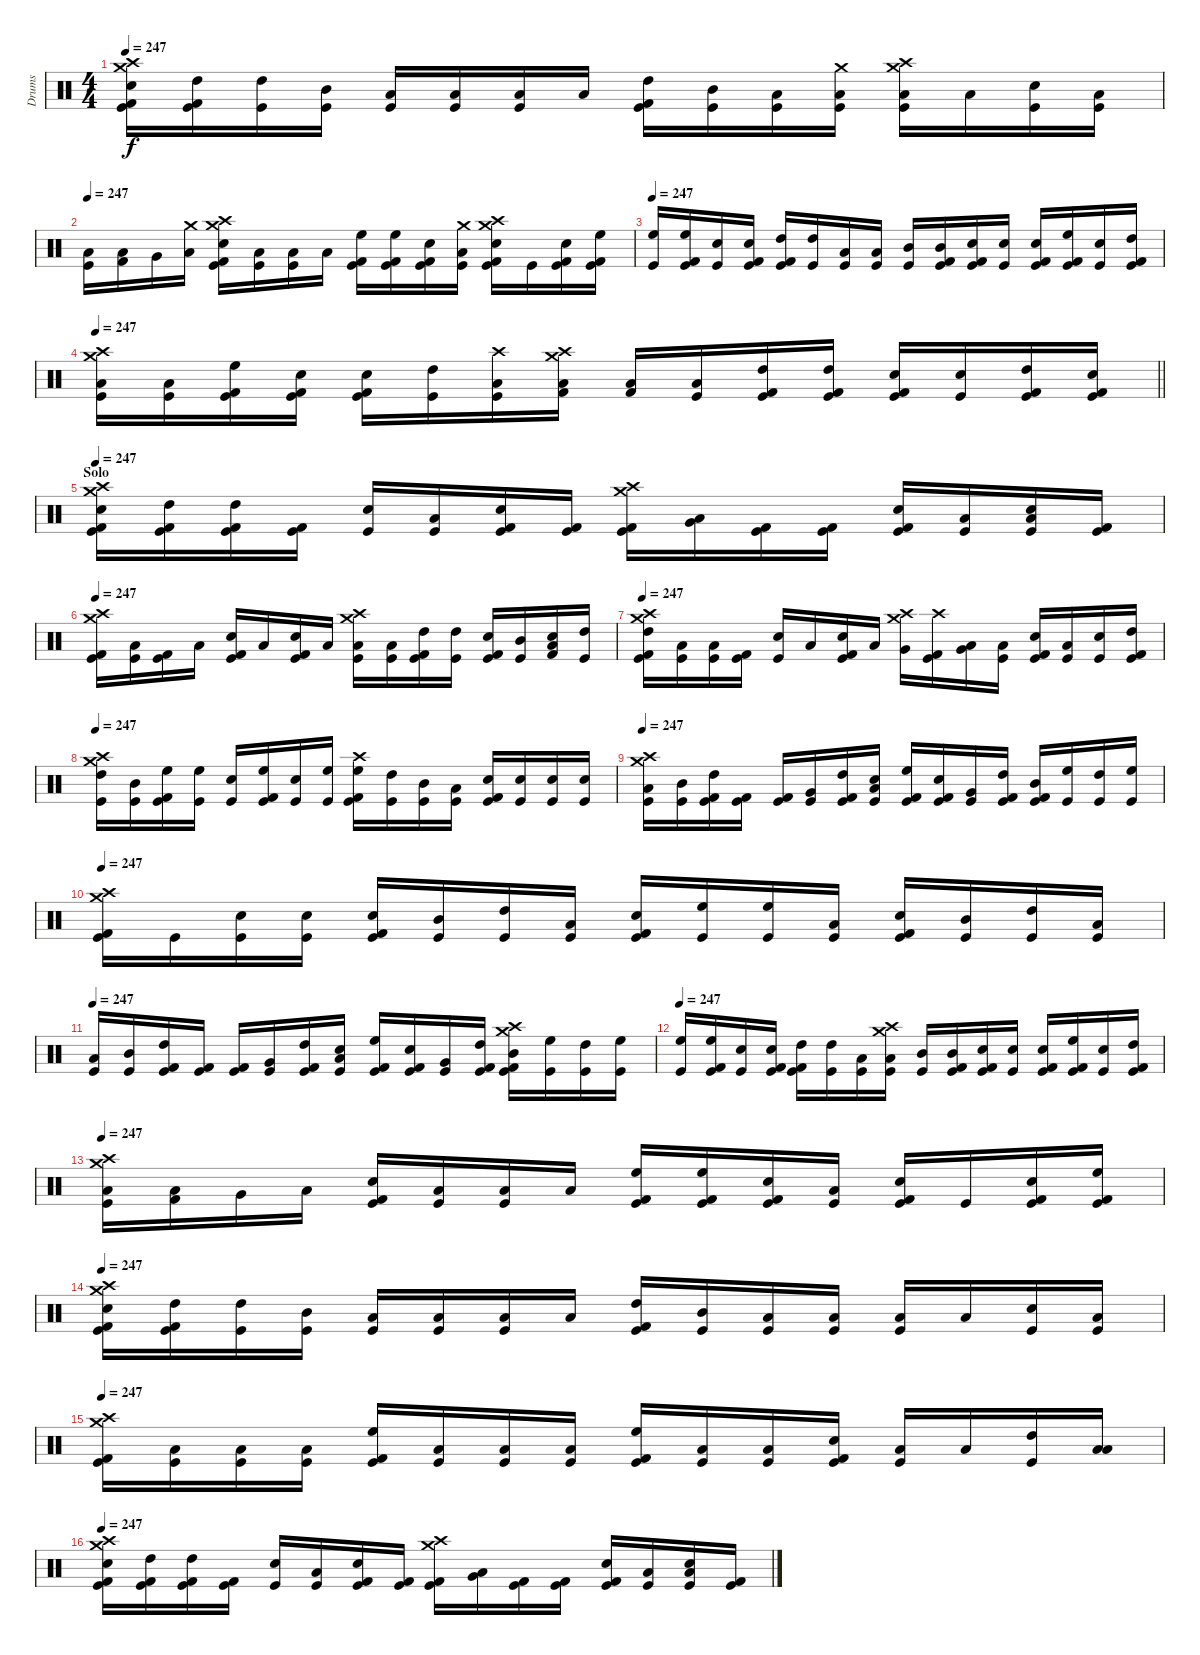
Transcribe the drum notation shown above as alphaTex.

\track ("Drums" "Drums") {instrument percussion}
\staff {score}
\articulation defaults
\ts (4 4)
\tempo 247
\clef neutral
\ks c
("Crash high (hit)" "Crash medium (hit)" "Snare (hit) 2" "Kick (hit) 2" "Kick (hit)").16{dy f} ("High Tom (hit)" "Kick (hit) 2" "Kick (hit)").16 ("High Tom (hit)" "Kick (hit)").16 ("Mid Tom (hit)" "Kick (hit)").16 ("Low Tom (hit)" "Kick (hit)").16 ("Low Tom (hit)" "Kick (hit)").16 ("Low Tom (hit)" "Kick (hit)").16 "Low Floor Tom (hit)".16 ("High Tom (hit)" "Kick (hit) 2" "Kick (hit)").16 ("Mid Tom (hit)" "Kick (hit)").16 ("Low Tom (hit)" "Kick (hit)").16 ("Crash medium (hit)" "Low Tom (hit)" "Kick (hit)").16 ("Crash high (hit)" "Crash medium (hit)" "Low Tom (hit)" "Kick (hit)").16 "Low Floor Tom (hit)".16 ("Snare (hit) 2" "Kick (hit)").16 ("Low Tom (hit)" "Kick (hit)").16 |
\tempo 247
("Low Tom (hit)" "Kick (hit)").16 ("Kick (hit) 2" "Low Floor Tom (hit)").16 "Very Low Tom (hit)".16 ("Crash medium (hit)" "Low Floor Tom (hit)").16 ("Crash high (hit)" "Crash medium (hit)" "Snare (hit) 2" "Kick (hit) 2" "Kick (hit)").16 ("Low Tom (hit)" "Kick (hit)").16 ("Low Tom (hit)" "Kick (hit)").16 "Low Floor Tom (hit)".16 ("High Floor Tom (hit)" "Kick (hit) 2" "Kick (hit)").16 ("High Floor Tom (hit)" "Kick (hit) 2" "Kick (hit)").16 ("Snare (hit) 2" "Kick (hit) 2" "Kick (hit)").16 ("Crash medium (hit)" "Low Tom (hit)" "Kick (hit)").16 ("Crash high (hit)" "Crash medium (hit)" "Snare (hit) 2" "Kick (hit) 2" "Kick (hit)").16 "Kick (hit)".16 ("Snare (hit) 2" "Kick (hit) 2" "Kick (hit)").16 ("High Floor Tom (hit)" "Kick (hit) 2" "Kick (hit)").16 |
\tempo 247
("High Floor Tom (hit)" "Kick (hit)").16 ("High Floor Tom (hit)" "Kick (hit) 2" "Kick (hit)").16 ("Snare (hit) 2" "Kick (hit)").16 ("Snare (hit) 2" "Kick (hit) 2" "Kick (hit)").16 ("High Tom (hit)" "Kick (hit) 2" "Kick (hit)").16 ("High Tom (hit)" "Kick (hit)").16 ("Low Tom (hit)" "Kick (hit)").16 ("Low Tom (hit)" "Kick (hit)").16 ("Mid Tom (hit)" "Kick (hit)").16 ("Mid Tom (hit)" "Kick (hit) 2" "Kick (hit)").16 ("Snare (hit) 2" "Kick (hit) 2" "Kick (hit)").16 ("Snare (hit) 2" "Kick (hit)").16 ("Snare (hit) 2" "Kick (hit) 2" "Kick (hit)").16 ("High Floor Tom (hit)" "Kick (hit) 2" "Kick (hit)").16 ("Snare (hit) 2" "Kick (hit)").16 ("High Tom (hit)" "Kick (hit) 2" "Kick (hit)").16 |
\tempo 247
\barLineRight lightlight
("Crash high (hit)" "Crash medium (hit)" "Low Tom (hit)" "Kick (hit)").16 ("Low Tom (hit)" "Kick (hit)").16 ("High Floor Tom (hit)" "Kick (hit) 2" "Kick (hit)").16 ("Snare (hit) 2" "Kick (hit) 2" "Kick (hit)").16 ("Snare (hit) 2" "Kick (hit) 2" "Kick (hit)").16 ("High Tom (hit)" "Kick (hit)").16 ("Crash high (hit)" "Low Tom (hit)" "Kick (hit)").16 ("Crash high (hit)" "Crash medium (hit)" "Kick (hit) 2" "Low Floor Tom (hit)").16 ("Kick (hit) 2" "Low Floor Tom (hit)").16 ("Low Tom (hit)" "Kick (hit)").16 ("High Tom (hit)" "Kick (hit) 2" "Kick (hit)").16 ("High Tom (hit)" "Kick (hit) 2" "Kick (hit)").16 ("Snare (hit) 2" "Kick (hit) 2" "Kick (hit)").16 ("Snare (hit) 2" "Kick (hit)").16 ("High Tom (hit)" "Kick (hit) 2" "Kick (hit)").16 ("Snare (hit) 2" "Kick (hit) 2" "Kick (hit)").16 |
\section ("" "Solo")
\tempo 247
("Crash high (hit)" "Crash medium (hit)" "Snare (hit) 2" "Kick (hit) 2" "Kick (hit)").16 ("High Tom (hit)" "Kick (hit) 2" "Kick (hit)").16 ("High Tom (hit)" "Kick (hit) 2" "Kick (hit)").16 ("Kick (hit) 2" "Kick (hit)").16 ("Snare (hit) 2" "Kick (hit)").16 ("Low Tom (hit)" "Kick (hit)").16 ("Snare (hit) 2" "Kick (hit) 2" "Kick (hit)").16 ("Kick (hit) 2" "Kick (hit)").16 ("Crash high (hit)" "Crash medium (hit)" "Kick (hit) 2" "Kick (hit)").16 ("Very Low Tom (hit)" "Low Floor Tom (hit)").16 ("Kick (hit) 2" "Kick (hit)").16 ("Kick (hit) 2" "Kick (hit)").16 ("Snare (hit) 2" "Kick (hit) 2" "Kick (hit)").16 ("Low Tom (hit)" "Kick (hit)").16 ("Snare (hit) 2" "Low Tom (hit)" "Kick (hit)").16 ("Kick (hit) 2" "Kick (hit)").16 |
\tempo 247
("Crash high (hit)" "Crash medium (hit)" "Kick (hit) 2" "Kick (hit)").16 ("Low Tom (hit)" "Kick (hit)").16 ("Kick (hit) 2" "Kick (hit)").16 "Low Floor Tom (hit)".16 ("Snare (hit) 2" "Kick (hit) 2" "Kick (hit)").16 "Low Floor Tom (hit)".16 ("Snare (hit) 2" "Kick (hit) 2" "Kick (hit)").16 "Low Floor Tom (hit)".16 ("Crash high (hit)" "Crash medium (hit)" "Low Tom (hit)" "Kick (hit)").16 ("Low Tom (hit)" "Kick (hit)").16 ("High Tom (hit)" "Kick (hit) 2" "Kick (hit)").16 ("High Tom (hit)" "Kick (hit)").16 ("Snare (hit) 2" "Kick (hit) 2" "Kick (hit)").16 ("Mid Tom (hit)" "Kick (hit)").16 ("Snare (hit) 2" "Kick (hit) 2" "Low Floor Tom (hit)").16 ("High Tom (hit)" "Kick (hit)").16 |
\tempo 247
("Crash high (hit)" "Crash medium (hit)" "High Tom (hit)" "Kick (hit) 2" "Kick (hit)").16 ("Low Tom (hit)" "Kick (hit)").16 ("Low Tom (hit)" "Kick (hit)").16 ("Kick (hit) 2" "Kick (hit)").16 ("Snare (hit) 2" "Kick (hit)").16 "Low Floor Tom (hit)".16 ("Snare (hit) 2" "Kick (hit) 2" "Kick (hit)").16 "Low Floor Tom (hit)".16 ("Crash high (hit)" "Crash medium (hit)" "Very Low Tom (hit)").16 ("Crash high (hit)" "Kick (hit) 2" "Kick (hit)").16 ("Very Low Tom (hit)" "Low Floor Tom (hit)").16 ("Low Tom (hit)" "Kick (hit)").16 ("Snare (hit) 2" "Kick (hit) 2" "Kick (hit)").16 ("Low Tom (hit)" "Kick (hit)").16 ("Snare (hit) 2" "Kick (hit)").16 ("High Tom (hit)" "Kick (hit) 2" "Kick (hit)").16 |
\tempo 247
("Crash high (hit)" "Crash medium (hit)" "High Tom (hit)" "Kick (hit)").16 ("Mid Tom (hit)" "Kick (hit)").16 ("High Floor Tom (hit)" "Kick (hit) 2" "Kick (hit)").16 ("High Floor Tom (hit)" "Kick (hit)").16 ("Snare (hit) 2" "Kick (hit)").16 ("High Floor Tom (hit)" "Kick (hit) 2" "Kick (hit)").16 ("Snare (hit) 2" "Kick (hit)").16 ("High Floor Tom (hit)" "Kick (hit)").16 ("Crash high (hit)" "High Floor Tom (hit)" "Kick (hit) 2" "Kick (hit)").16 ("High Tom (hit)" "Kick (hit)").16 ("Mid Tom (hit)" "Kick (hit)").16 ("Low Tom (hit)" "Kick (hit)").16 ("Snare (hit) 2" "Kick (hit) 2" "Kick (hit)").16 ("Snare (hit) 2" "Kick (hit)").16 ("Snare (hit) 2" "Kick (hit)").16 ("Snare (hit) 2" "Kick (hit)").16 |
\tempo 247
("Crash high (hit)" "Crash medium (hit)" "Low Tom (hit)" "Kick (hit)").16 ("Mid Tom (hit)" "Kick (hit)").16 ("High Tom (hit)" "Kick (hit) 2" "Kick (hit)").16 ("Kick (hit) 2" "Kick (hit)").16 ("Kick (hit) 2" "Kick (hit)").16 ("Very Low Tom (hit)" "Kick (hit)").16 ("High Tom (hit)" "Kick (hit) 2" "Kick (hit)").16 ("Snare (hit) 2" "Low Floor Tom (hit)" "Kick (hit)").16 ("High Floor Tom (hit)" "Kick (hit) 2" "Kick (hit)").16 ("Snare (hit) 2" "Kick (hit) 2" "Kick (hit)").16 ("Very Low Tom (hit)" "Kick (hit)").16 ("High Tom (hit)" "Kick (hit) 2" "Kick (hit)").16 ("Mid Tom (hit)" "Kick (hit) 2" "Kick (hit)").16 ("High Floor Tom (hit)" "Kick (hit)").16 ("High Tom (hit)" "Kick (hit)").16 ("High Floor Tom (hit)" "Kick (hit)").16 |
\tempo 247
("Crash high (hit)" "Crash medium (hit)" "Kick (hit) 2" "Kick (hit)").16 "Kick (hit)".16 ("Snare (hit) 2" "Kick (hit)").16 ("Snare (hit) 2" "Kick (hit)").16 ("Snare (hit) 2" "Kick (hit) 2" "Kick (hit)").16 ("Mid Tom (hit)" "Kick (hit)").16 ("High Tom (hit)" "Kick (hit)").16 ("Low Tom (hit)" "Kick (hit)").16 ("Snare (hit) 2" "Kick (hit) 2" "Kick (hit)").16 ("High Floor Tom (hit)" "Kick (hit)").16 ("High Floor Tom (hit)" "Kick (hit)").16 ("Low Tom (hit)" "Kick (hit)").16 ("Snare (hit) 2" "Kick (hit) 2" "Kick (hit)").16 ("Mid Tom (hit)" "Kick (hit)").16 ("High Tom (hit)" "Kick (hit)").16 ("Low Tom (hit)" "Kick (hit)").16 |
\tempo 247
("Low Tom (hit)" "Kick (hit)").16 ("Mid Tom (hit)" "Kick (hit)").16 ("High Tom (hit)" "Kick (hit) 2" "Kick (hit)").16 ("Kick (hit) 2" "Kick (hit)").16 ("Kick (hit) 2" "Kick (hit)").16 ("Very Low Tom (hit)" "Kick (hit)").16 ("High Tom (hit)" "Kick (hit) 2" "Kick (hit)").16 ("Snare (hit) 2" "Low Floor Tom (hit)" "Kick (hit)").16 ("High Floor Tom (hit)" "Kick (hit) 2" "Kick (hit)").16 ("Snare (hit) 2" "Kick (hit) 2" "Kick (hit)").16 ("Very Low Tom (hit)" "Kick (hit)").16 ("High Tom (hit)" "Kick (hit) 2" "Kick (hit)").16 ("Crash high (hit)" "Crash medium (hit)" "Mid Tom (hit)" "Kick (hit) 2" "Kick (hit)").16 ("High Floor Tom (hit)" "Kick (hit)").16 ("High Tom (hit)" "Kick (hit)").16 ("High Floor Tom (hit)" "Kick (hit)").16 |
\tempo 247
("High Floor Tom (hit)" "Kick (hit)").16 ("High Floor Tom (hit)" "Kick (hit) 2" "Kick (hit)").16 ("Snare (hit) 2" "Kick (hit)").16 ("Snare (hit) 2" "Kick (hit) 2" "Kick (hit)").16 ("High Tom (hit)" "Kick (hit) 2" "Kick (hit)").16 ("High Tom (hit)" "Kick (hit)").16 ("Low Tom (hit)" "Kick (hit)").16 ("Crash high (hit)" "Crash medium (hit)" "Low Tom (hit)" "Kick (hit)").16 ("Mid Tom (hit)" "Kick (hit)").16 ("Mid Tom (hit)" "Kick (hit) 2" "Kick (hit)").16 ("Snare (hit) 2" "Kick (hit) 2" "Kick (hit)").16 ("Snare (hit) 2" "Kick (hit)").16 ("Snare (hit) 2" "Kick (hit) 2" "Kick (hit)").16 ("High Floor Tom (hit)" "Kick (hit) 2" "Kick (hit)").16 ("Snare (hit) 2" "Kick (hit)").16 ("High Tom (hit)" "Kick (hit) 2" "Kick (hit)").16 |
\tempo 247
("Crash high (hit)" "Crash medium (hit)" "Low Tom (hit)" "Kick (hit)").16 ("Kick (hit) 2" "Low Floor Tom (hit)").16 "Very Low Tom (hit)".16 "Low Floor Tom (hit)".16 ("Snare (hit) 2" "Kick (hit) 2" "Kick (hit)").16 ("Low Tom (hit)" "Kick (hit)").16 ("Low Tom (hit)" "Kick (hit)").16 "Low Floor Tom (hit)".16 ("High Floor Tom (hit)" "Kick (hit) 2" "Kick (hit)").16 ("High Floor Tom (hit)" "Kick (hit) 2" "Kick (hit)").16 ("Snare (hit) 2" "Kick (hit) 2" "Kick (hit)").16 ("Low Tom (hit)" "Kick (hit)").16 ("Snare (hit) 2" "Kick (hit) 2" "Kick (hit)").16 "Kick (hit)".16 ("Snare (hit) 2" "Kick (hit) 2" "Kick (hit)").16 ("High Floor Tom (hit)" "Kick (hit) 2" "Kick (hit)").16 |
\tempo 247
("Crash high (hit)" "Crash medium (hit)" "Snare (hit) 2" "Kick (hit) 2" "Kick (hit)").16 ("High Tom (hit)" "Kick (hit) 2" "Kick (hit)").16 ("High Tom (hit)" "Kick (hit)").16 ("Mid Tom (hit)" "Kick (hit)").16 ("Low Tom (hit)" "Kick (hit)").16 ("Low Tom (hit)" "Kick (hit)").16 ("Low Tom (hit)" "Kick (hit)").16 "Low Floor Tom (hit)".16 ("High Tom (hit)" "Kick (hit) 2" "Kick (hit)").16 ("Mid Tom (hit)" "Kick (hit)").16 ("Low Tom (hit)" "Kick (hit)").16 ("Low Tom (hit)" "Kick (hit)").16 ("Low Tom (hit)" "Kick (hit)").16 "Low Floor Tom (hit)".16 ("Snare (hit) 2" "Kick (hit)").16 ("Low Tom (hit)" "Kick (hit)").16 |
\tempo 247
("Crash high (hit)" "Crash medium (hit)" "Kick (hit) 2" "Kick (hit)").16 ("Low Tom (hit)" "Kick (hit)").16 ("Low Tom (hit)" "Kick (hit)").16 ("Low Tom (hit)" "Kick (hit)").16 ("High Floor Tom (hit)" "Kick (hit) 2" "Kick (hit)").16 ("Low Tom (hit)" "Kick (hit)").16 ("Low Tom (hit)" "Kick (hit)").16 ("Low Tom (hit)" "Kick (hit)").16 ("High Floor Tom (hit)" "Kick (hit) 2" "Kick (hit)").16 ("Low Tom (hit)" "Kick (hit)").16 ("Low Tom (hit)" "Kick (hit)").16 ("Snare (hit) 2" "Kick (hit) 2" "Kick (hit)").16 ("Low Tom (hit)" "Kick (hit)").16 "Low Floor Tom (hit)".16 ("High Tom (hit)" "Kick (hit)").16 ("Low Tom (hit)" "Low Floor Tom (hit)").16 |
\tempo 247
("Crash high (hit)" "Crash medium (hit)" "Snare (hit) 2" "Kick (hit) 2" "Kick (hit)").16 ("High Tom (hit)" "Kick (hit) 2" "Kick (hit)").16 ("High Tom (hit)" "Kick (hit) 2" "Kick (hit)").16 ("Kick (hit) 2" "Kick (hit)").16 ("Snare (hit) 2" "Kick (hit)").16 ("Low Tom (hit)" "Kick (hit)").16 ("Snare (hit) 2" "Kick (hit) 2" "Kick (hit)").16 ("Kick (hit) 2" "Kick (hit)").16 ("Crash high (hit)" "Crash medium (hit)" "Kick (hit) 2" "Kick (hit)").16 ("Very Low Tom (hit)" "Low Floor Tom (hit)").16 ("Kick (hit) 2" "Kick (hit)").16 ("Kick (hit) 2" "Kick (hit)").16 ("Snare (hit) 2" "Kick (hit) 2" "Kick (hit)").16 ("Low Tom (hit)" "Kick (hit)").16 ("Snare (hit) 2" "Low Tom (hit)" "Kick (hit)").16 ("Kick (hit) 2" "Kick (hit)").16
